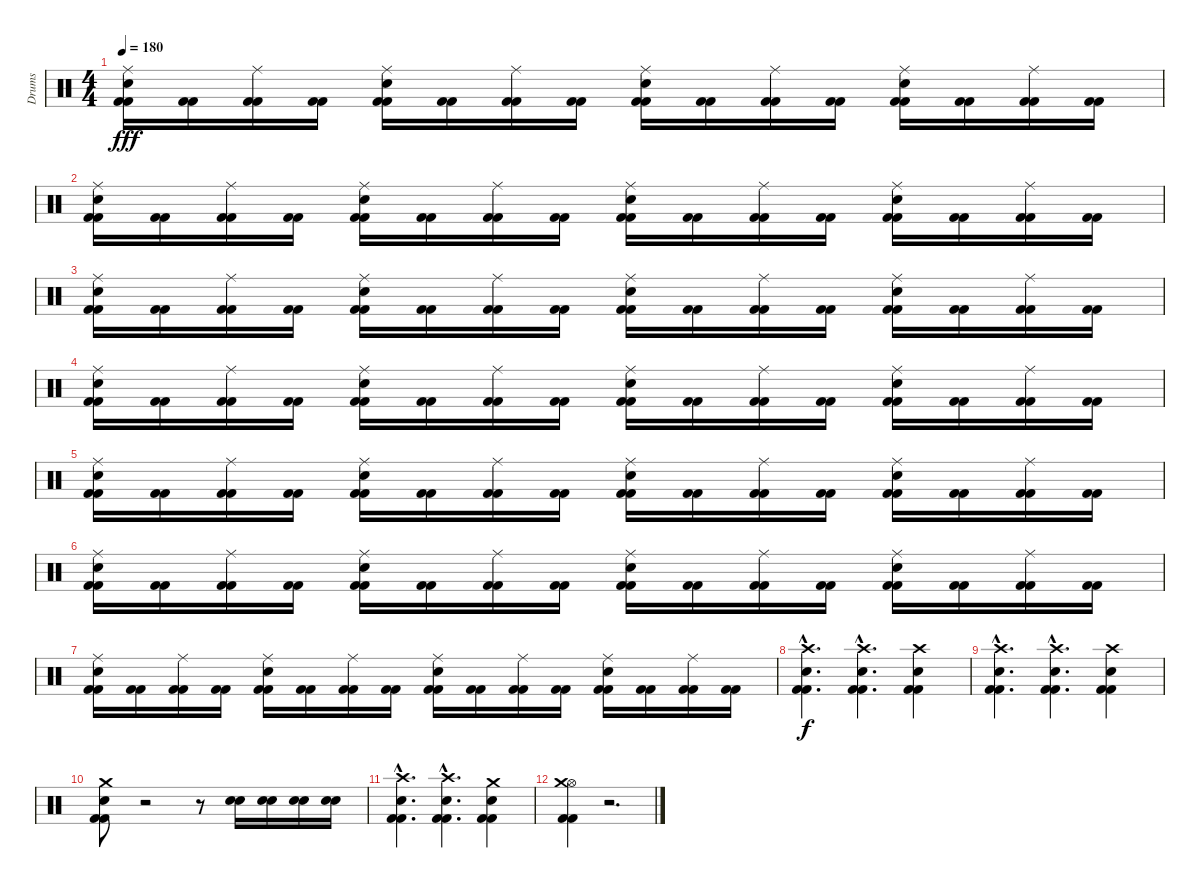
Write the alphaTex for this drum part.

\track ("Drums" "Drums") {instrument percussion}
\staff {score}
\articulation defaults
\ts (4 4)
\tempo 180
\clef neutral
\ks c
("Kick (hit) 2" "Kick (hit) 2" "Electric Snare (hit)" "Ride (middle)").16{dy fff} ("Kick (hit) 2" "Kick (hit) 2").16 ("Kick (hit) 2" "Kick (hit) 2" "Ride (middle)").16 ("Kick (hit) 2" "Kick (hit) 2").16 ("Kick (hit) 2" "Kick (hit) 2" "Electric Snare (hit)" "Ride (middle)").16 ("Kick (hit) 2" "Kick (hit) 2").16 ("Kick (hit) 2" "Kick (hit) 2" "Ride (middle)").16 ("Kick (hit) 2" "Kick (hit) 2").16 ("Kick (hit) 2" "Kick (hit) 2" "Electric Snare (hit)" "Ride (middle)").16 ("Kick (hit) 2" "Kick (hit) 2").16 ("Kick (hit) 2" "Kick (hit) 2" "Ride (middle)").16 ("Kick (hit) 2" "Kick (hit) 2").16 ("Kick (hit) 2" "Kick (hit) 2" "Electric Snare (hit)" "Ride (middle)").16 ("Kick (hit) 2" "Kick (hit) 2").16 ("Kick (hit) 2" "Kick (hit) 2" "Ride (middle)").16 ("Kick (hit) 2" "Kick (hit) 2").16 |
("Kick (hit) 2" "Kick (hit) 2" "Electric Snare (hit)" "Ride (middle)").16 ("Kick (hit) 2" "Kick (hit) 2").16 ("Kick (hit) 2" "Kick (hit) 2" "Ride (middle)").16 ("Kick (hit) 2" "Kick (hit) 2").16 ("Kick (hit) 2" "Kick (hit) 2" "Electric Snare (hit)" "Ride (middle)").16 ("Kick (hit) 2" "Kick (hit) 2").16 ("Kick (hit) 2" "Kick (hit) 2" "Ride (middle)").16 ("Kick (hit) 2" "Kick (hit) 2").16 ("Kick (hit) 2" "Kick (hit) 2" "Electric Snare (hit)" "Ride (middle)").16 ("Kick (hit) 2" "Kick (hit) 2").16 ("Kick (hit) 2" "Kick (hit) 2" "Ride (middle)").16 ("Kick (hit) 2" "Kick (hit) 2").16 ("Kick (hit) 2" "Kick (hit) 2" "Electric Snare (hit)" "Ride (middle)").16 ("Kick (hit) 2" "Kick (hit) 2").16 ("Kick (hit) 2" "Kick (hit) 2" "Ride (middle)").16 ("Kick (hit) 2" "Kick (hit) 2").16 |
("Kick (hit) 2" "Kick (hit) 2" "Electric Snare (hit)" "Ride (middle)").16 ("Kick (hit) 2" "Kick (hit) 2").16 ("Kick (hit) 2" "Kick (hit) 2" "Ride (middle)").16 ("Kick (hit) 2" "Kick (hit) 2").16 ("Kick (hit) 2" "Kick (hit) 2" "Electric Snare (hit)" "Ride (middle)").16 ("Kick (hit) 2" "Kick (hit) 2").16 ("Kick (hit) 2" "Kick (hit) 2" "Ride (middle)").16 ("Kick (hit) 2" "Kick (hit) 2").16 ("Kick (hit) 2" "Kick (hit) 2" "Electric Snare (hit)" "Ride (middle)").16 ("Kick (hit) 2" "Kick (hit) 2").16 ("Kick (hit) 2" "Kick (hit) 2" "Ride (middle)").16 ("Kick (hit) 2" "Kick (hit) 2").16 ("Kick (hit) 2" "Kick (hit) 2" "Electric Snare (hit)" "Ride (middle)").16 ("Kick (hit) 2" "Kick (hit) 2").16 ("Kick (hit) 2" "Kick (hit) 2" "Ride (middle)").16 ("Kick (hit) 2" "Kick (hit) 2").16 |
("Kick (hit) 2" "Kick (hit) 2" "Electric Snare (hit)" "Ride (middle)").16 ("Kick (hit) 2" "Kick (hit) 2").16 ("Kick (hit) 2" "Kick (hit) 2" "Ride (middle)").16 ("Kick (hit) 2" "Kick (hit) 2").16 ("Kick (hit) 2" "Kick (hit) 2" "Electric Snare (hit)" "Ride (middle)").16 ("Kick (hit) 2" "Kick (hit) 2").16 ("Kick (hit) 2" "Kick (hit) 2" "Ride (middle)").16 ("Kick (hit) 2" "Kick (hit) 2").16 ("Kick (hit) 2" "Kick (hit) 2" "Electric Snare (hit)" "Ride (middle)").16 ("Kick (hit) 2" "Kick (hit) 2").16 ("Kick (hit) 2" "Kick (hit) 2" "Ride (middle)").16 ("Kick (hit) 2" "Kick (hit) 2").16 ("Kick (hit) 2" "Kick (hit) 2" "Electric Snare (hit)" "Ride (middle)").16 ("Kick (hit) 2" "Kick (hit) 2").16 ("Kick (hit) 2" "Kick (hit) 2" "Ride (middle)").16 ("Kick (hit) 2" "Kick (hit) 2").16 |
("Kick (hit) 2" "Kick (hit) 2" "Electric Snare (hit)" "Ride (middle)").16 ("Kick (hit) 2" "Kick (hit) 2").16 ("Kick (hit) 2" "Kick (hit) 2" "Ride (middle)").16 ("Kick (hit) 2" "Kick (hit) 2").16 ("Kick (hit) 2" "Kick (hit) 2" "Electric Snare (hit)" "Ride (middle)").16 ("Kick (hit) 2" "Kick (hit) 2").16 ("Kick (hit) 2" "Kick (hit) 2" "Ride (middle)").16 ("Kick (hit) 2" "Kick (hit) 2").16 ("Kick (hit) 2" "Kick (hit) 2" "Electric Snare (hit)" "Ride (middle)").16 ("Kick (hit) 2" "Kick (hit) 2").16 ("Kick (hit) 2" "Kick (hit) 2" "Ride (middle)").16 ("Kick (hit) 2" "Kick (hit) 2").16 ("Kick (hit) 2" "Kick (hit) 2" "Electric Snare (hit)" "Ride (middle)").16 ("Kick (hit) 2" "Kick (hit) 2").16 ("Kick (hit) 2" "Kick (hit) 2" "Ride (middle)").16 ("Kick (hit) 2" "Kick (hit) 2").16 |
("Kick (hit) 2" "Kick (hit) 2" "Electric Snare (hit)" "Ride (middle)").16 ("Kick (hit) 2" "Kick (hit) 2").16 ("Kick (hit) 2" "Kick (hit) 2" "Ride (middle)").16 ("Kick (hit) 2" "Kick (hit) 2").16 ("Kick (hit) 2" "Kick (hit) 2" "Electric Snare (hit)" "Ride (middle)").16 ("Kick (hit) 2" "Kick (hit) 2").16 ("Kick (hit) 2" "Kick (hit) 2" "Ride (middle)").16 ("Kick (hit) 2" "Kick (hit) 2").16 ("Kick (hit) 2" "Kick (hit) 2" "Electric Snare (hit)" "Ride (middle)").16 ("Kick (hit) 2" "Kick (hit) 2").16 ("Kick (hit) 2" "Kick (hit) 2" "Ride (middle)").16 ("Kick (hit) 2" "Kick (hit) 2").16 ("Kick (hit) 2" "Kick (hit) 2" "Electric Snare (hit)" "Ride (middle)").16 ("Kick (hit) 2" "Kick (hit) 2").16 ("Kick (hit) 2" "Kick (hit) 2" "Ride (middle)").16 ("Kick (hit) 2" "Kick (hit) 2").16 |
("Kick (hit) 2" "Kick (hit) 2" "Electric Snare (hit)" "Ride (middle)").16 ("Kick (hit) 2" "Kick (hit) 2").16 ("Kick (hit) 2" "Kick (hit) 2" "Ride (middle)").16 ("Kick (hit) 2" "Kick (hit) 2").16 ("Kick (hit) 2" "Kick (hit) 2" "Electric Snare (hit)" "Ride (middle)").16 ("Kick (hit) 2" "Kick (hit) 2").16 ("Kick (hit) 2" "Kick (hit) 2" "Ride (middle)").16 ("Kick (hit) 2" "Kick (hit) 2").16 ("Kick (hit) 2" "Kick (hit) 2" "Electric Snare (hit)" "Ride (middle)").16 ("Kick (hit) 2" "Kick (hit) 2").16 ("Kick (hit) 2" "Kick (hit) 2" "Ride (middle)").16 ("Kick (hit) 2" "Kick (hit) 2").16 ("Kick (hit) 2" "Kick (hit) 2" "Electric Snare (hit)" "Ride (middle)").16 ("Kick (hit) 2" "Kick (hit) 2").16 ("Kick (hit) 2" "Kick (hit) 2" "Ride (middle)").16 ("Kick (hit) 2" "Kick (hit) 2").16 |
("Kick (hit) 2"{hac} "Kick (hit) 2"{hac} "Electric Snare (hit)"{hac} "Crash high (hit)"{hac}).4{d dy f} ("Kick (hit) 2"{hac} "Kick (hit) 2"{hac} "Electric Snare (hit)"{hac} "Crash high (hit)"{hac}).4{d} ("Kick (hit) 2" "Kick (hit) 2" "Electric Snare (hit)" "Crash high (hit)").4 |
("Kick (hit) 2"{hac} "Kick (hit) 2"{hac} "Electric Snare (hit)"{hac} "Crash high (hit)"{hac}).4{d} ("Kick (hit) 2"{hac} "Kick (hit) 2"{hac} "Electric Snare (hit)"{hac} "Crash high (hit)"{hac}).4{d} ("Kick (hit) 2" "Kick (hit) 2" "Electric Snare (hit)" "Crash high (hit)").4 |
("Kick (hit) 2" "Kick (hit) 2" "Electric Snare (hit)" "Crash medium (hit)").8 r.2 r.8 ("Snare (hit) 2" "Snare (hit) 2").16 ("Snare (hit) 2" "Snare (hit) 2").16 ("Snare (hit) 2" "Snare (hit) 2").16 ("Snare (hit) 2" "Snare (hit) 2").16 |
("Kick (hit) 2"{hac} "Kick (hit) 2"{hac} "Electric Snare (hit)"{hac} "Crash high (hit)"{hac}).4{d} ("Kick (hit) 2"{hac} "Kick (hit) 2"{hac} "Electric Snare (hit)"{hac} "Crash high (hit)"{hac}).4{d} ("Kick (hit) 2" "Kick (hit) 2" "Electric Snare (hit)" "Crash medium (hit)").4 |
("Kick (hit) 2" "Kick (hit) 2" "Hi-Hat (open)" "Crash medium (hit)").4 r.2{d}
